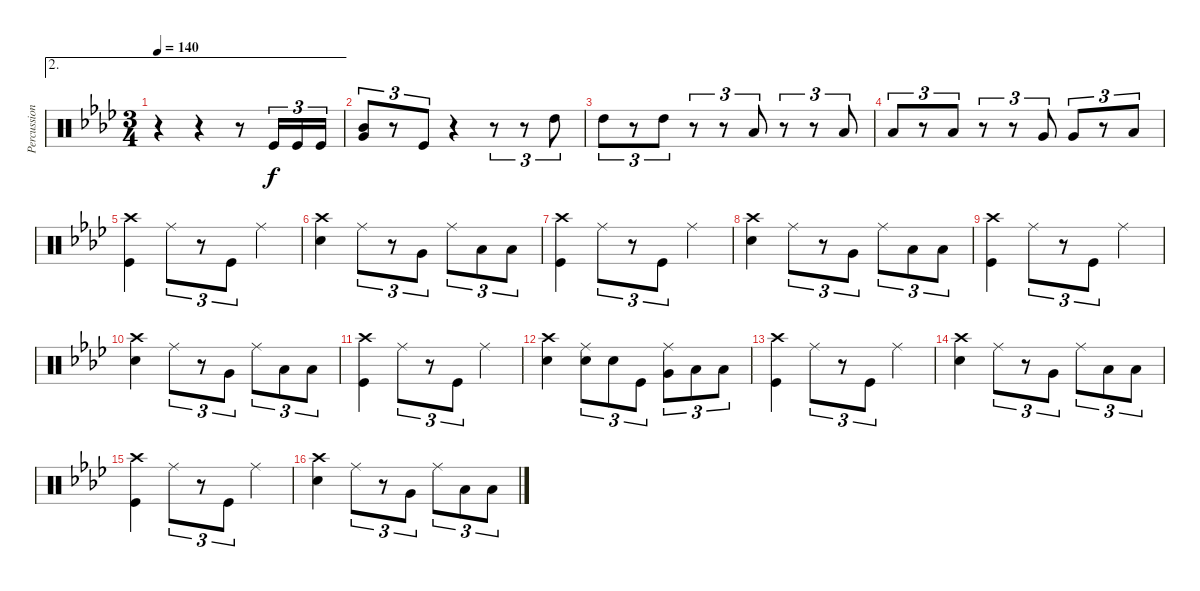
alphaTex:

\track ("Percussion" "Percussion") {instrument percussion}
\staff {score}
\articulation defaults
\ae 2
\ts (3 4)
\tempo 140
\clef neutral
\ks ab
r.4{dy f} r.4 r.8 "Kick (hit)".16{tu (3 2)} "Kick (hit)".16{tu (3 2)} "Kick (hit)".16{tu (3 2)} |
("Very Low Tom (hit)" "Mid Tom (hit)").8{tu (3 2)} r.8{tu (3 2)} "Kick (hit)".8{tu (3 2)} r.4 r.8{tu (3 2)} r.8{tu (3 2)} "High Tom (hit)".8{tu (3 2)} |
"High Tom (hit)".8{tu (3 2)} r.8{tu (3 2)} "High Tom (hit)".8{tu (3 2)} r.8{tu (3 2)} r.8{tu (3 2)} "Low Tom (hit)".8{tu (3 2)} r.8{tu (3 2)} r.8{tu (3 2)} "Low Tom (hit)".8{tu (3 2)} |
"Low Tom (hit)".8{tu (3 2)} r.8{tu (3 2)} "Low Tom (hit)".8{tu (3 2)} r.8{tu (3 2)} r.8{tu (3 2)} "Very Low Tom (hit)".8{tu (3 2)} "Very Low Tom (hit)".8{tu (3 2)} r.8{tu (3 2)} "Low Floor Tom (hit)".8{tu (3 2)} |
("Kick (hit)" "Crash high (hit)").4 "Ride (middle)".8{tu (3 2)} r.8{tu (3 2)} "Kick (hit)".8{tu (3 2)} "Ride (middle)".4 |
("Snare (hit) 2" "Crash high (hit)").4 "Ride (middle)".8{tu (3 2)} r.8{tu (3 2)} "Very Low Tom (hit)".8{tu (3 2)} "Ride (middle)".8{tu (3 2)} "Low Floor Tom (hit)".8{tu (3 2)} "Low Floor Tom (hit)".8{tu (3 2)} |
("Kick (hit)" "Crash high (hit)").4 "Ride (middle)".8{tu (3 2)} r.8{tu (3 2)} "Kick (hit)".8{tu (3 2)} "Ride (middle)".4 |
("Snare (hit) 2" "Crash high (hit)").4 "Ride (middle)".8{tu (3 2)} r.8{tu (3 2)} "Very Low Tom (hit)".8{tu (3 2)} "Ride (middle)".8{tu (3 2)} "Low Floor Tom (hit)".8{tu (3 2)} "Low Floor Tom (hit)".8{tu (3 2)} |
("Kick (hit)" "Crash high (hit)").4 "Ride (middle)".8{tu (3 2)} r.8{tu (3 2)} "Kick (hit)".8{tu (3 2)} "Ride (middle)".4 |
("Snare (hit) 2" "Crash high (hit)").4 "Ride (middle)".8{tu (3 2)} r.8{tu (3 2)} "Very Low Tom (hit)".8{tu (3 2)} "Ride (middle)".8{tu (3 2)} "Low Floor Tom (hit)".8{tu (3 2)} "Low Floor Tom (hit)".8{tu (3 2)} |
("Kick (hit)" "Crash high (hit)").4 "Ride (middle)".8{tu (3 2)} r.8{tu (3 2)} "Kick (hit)".8{tu (3 2)} "Ride (middle)".4 |
("Snare (hit) 2" "Crash high (hit)").4 ("Ride (middle)" "Snare (hit) 2").8{tu (3 2)} "Snare (hit) 2".8{tu (3 2)} "Kick (hit)".8{tu (3 2)} ("Ride (middle)" "Very Low Tom (hit)").8{tu (3 2)} "Low Floor Tom (hit)".8{tu (3 2)} "Low Floor Tom (hit)".8{tu (3 2)} |
("Kick (hit)" "Crash high (hit)").4 "Ride (middle)".8{tu (3 2)} r.8{tu (3 2)} "Kick (hit)".8{tu (3 2)} "Ride (middle)".4 |
("Snare (hit) 2" "Crash high (hit)").4 "Ride (middle)".8{tu (3 2)} r.8{tu (3 2)} "Very Low Tom (hit)".8{tu (3 2)} "Ride (middle)".8{tu (3 2)} "Low Floor Tom (hit)".8{tu (3 2)} "Low Floor Tom (hit)".8{tu (3 2)} |
("Kick (hit)" "Crash high (hit)").4 "Ride (middle)".8{tu (3 2)} r.8{tu (3 2)} "Kick (hit)".8{tu (3 2)} "Ride (middle)".4 |
("Snare (hit) 2" "Crash high (hit)").4 "Ride (middle)".8{tu (3 2)} r.8{tu (3 2)} "Very Low Tom (hit)".8{tu (3 2)} "Ride (middle)".8{tu (3 2)} "Low Floor Tom (hit)".8{tu (3 2)} "Low Floor Tom (hit)".8{tu (3 2)}
